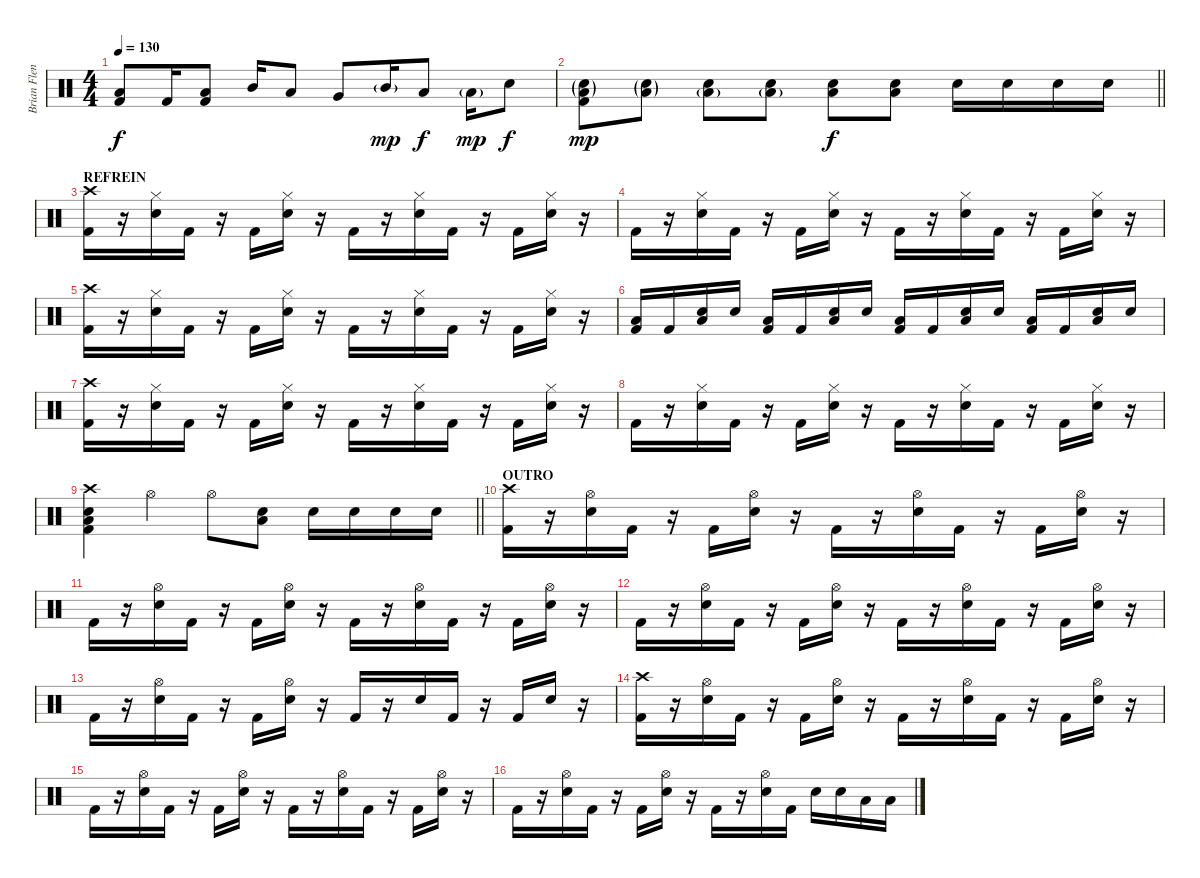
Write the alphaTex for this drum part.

\track ("Brian Flenniken" "Brian Flen") {instrument percussion}
\staff {score}
\articulation defaults
\ts (4 4)
\tempo 130
\clef neutral
\ks c
("Low Floor Tom (hit)" "Kick (hit) 2").8{dy f} "Kick (hit) 2".16 ("Low Floor Tom (hit)" "Kick (hit) 2").8 "Mid Tom (hit)".16 "Low Tom (hit)".8 "Very Low Tom (hit)".8 "Mid Tom (hit)"{g}.16{dy mp} "Low Floor Tom (hit)".8{dy f} "Low Tom (hit)"{g}.16{dy mp} "Snare (hit) 2".8{dy f} |
\barLineRight lightlight
("Low Floor Tom (hit)"{g} "Snare (hit) 2"{g} "Kick (hit) 2").8{dy mp} ("Low Floor Tom (hit)"{g} "Snare (hit) 2"{g}).8 ("Low Floor Tom (hit)"{g} "Snare (hit) 2").8 ("Low Floor Tom (hit)"{g} "Snare (hit) 2").8 ("Low Floor Tom (hit)" "Snare (hit) 2").8{dy f} ("Low Floor Tom (hit)" "Snare (hit) 2").8 "Snare (hit) 2".16 "Snare (hit) 2".16 "Snare (hit) 2".16 "Snare (hit) 2".16 |
\section ("" "REFREIN")
("Crash high (hit)" "Kick (hit) 2").16 r.16 ("Hi-Hat (closed)" "Snare (hit) 2").16 "Kick (hit) 2".16 r.16 "Kick (hit) 2".16 ("Hi-Hat (closed)" "Snare (hit) 2").16 r.16 "Kick (hit) 2".16 r.16 ("Hi-Hat (closed)" "Snare (hit) 2").16 "Kick (hit) 2".16 r.16 "Kick (hit) 2".16 ("Hi-Hat (closed)" "Snare (hit) 2").16 r.16 |
"Kick (hit) 2".16 r.16 ("Hi-Hat (closed)" "Snare (hit) 2").16 "Kick (hit) 2".16 r.16 "Kick (hit) 2".16 ("Hi-Hat (closed)" "Snare (hit) 2").16 r.16 "Kick (hit) 2".16 r.16 ("Hi-Hat (closed)" "Snare (hit) 2").16 "Kick (hit) 2".16 r.16 "Kick (hit) 2".16 ("Hi-Hat (closed)" "Snare (hit) 2").16 r.16 |
("Crash high (hit)" "Kick (hit) 2").16 r.16 ("Hi-Hat (closed)" "Snare (hit) 2").16 "Kick (hit) 2".16 r.16 "Kick (hit) 2".16 ("Hi-Hat (closed)" "Snare (hit) 2").16 r.16 "Kick (hit) 2".16 r.16 ("Hi-Hat (closed)" "Snare (hit) 2").16 "Kick (hit) 2".16 r.16 "Kick (hit) 2".16 ("Hi-Hat (closed)" "Snare (hit) 2").16 r.16 |
("Low Floor Tom (hit)" "Kick (hit) 2").16 "Kick (hit) 2".16 ("Low Floor Tom (hit)" "Snare (hit) 2").16 "Snare (hit) 2".16 ("Low Floor Tom (hit)" "Kick (hit) 2").16 "Kick (hit) 2".16 ("Low Floor Tom (hit)" "Snare (hit) 2").16 "Snare (hit) 2".16 ("Low Floor Tom (hit)" "Kick (hit) 2").16 "Kick (hit) 2".16 ("Low Floor Tom (hit)" "Snare (hit) 2").16 "Snare (hit) 2".16 ("Low Floor Tom (hit)" "Kick (hit) 2").16 "Kick (hit) 2".16 ("Low Floor Tom (hit)" "Snare (hit) 2").16 "Snare (hit) 2".16 |
("Crash high (hit)" "Kick (hit) 2").16 r.16 ("Hi-Hat (closed)" "Snare (hit) 2").16 "Kick (hit) 2".16 r.16 "Kick (hit) 2".16 ("Hi-Hat (closed)" "Snare (hit) 2").16 r.16 "Kick (hit) 2".16 r.16 ("Hi-Hat (closed)" "Snare (hit) 2").16 "Kick (hit) 2".16 r.16 "Kick (hit) 2".16 ("Hi-Hat (closed)" "Snare (hit) 2").16 r.16 |
"Kick (hit) 2".16 r.16 ("Hi-Hat (closed)" "Snare (hit) 2").16 "Kick (hit) 2".16 r.16 "Kick (hit) 2".16 ("Hi-Hat (closed)" "Snare (hit) 2").16 r.16 "Kick (hit) 2".16 r.16 ("Hi-Hat (closed)" "Snare (hit) 2").16 "Kick (hit) 2".16 r.16 "Kick (hit) 2".16 ("Hi-Hat (closed)" "Snare (hit) 2").16 r.16 |
\barLineRight lightlight
("Crash high (hit)" "Low Floor Tom (hit)" "Snare (hit) 2" "Kick (hit) 2").4 "Hi-Hat (open)".4 "Hi-Hat (open)".8 ("Low Floor Tom (hit)" "Snare (hit) 2").8 "Snare (hit) 2".16 "Snare (hit) 2".16 "Snare (hit) 2".16 "Snare (hit) 2".16 |
\section ("" "OUTRO")
("Crash high (hit)" "Kick (hit) 2").16 r.16 ("Hi-Hat (open)" "Snare (hit) 2").16 "Kick (hit) 2".16 r.16 "Kick (hit) 2".16 ("Hi-Hat (open)" "Snare (hit) 2").16 r.16 "Kick (hit) 2".16 r.16 ("Hi-Hat (open)" "Snare (hit) 2").16 "Kick (hit) 2".16 r.16 "Kick (hit) 2".16 ("Hi-Hat (open)" "Snare (hit) 2").16 r.16 |
"Kick (hit) 2".16 r.16 ("Hi-Hat (open)" "Snare (hit) 2").16 "Kick (hit) 2".16 r.16 "Kick (hit) 2".16 ("Hi-Hat (open)" "Snare (hit) 2").16 r.16 "Kick (hit) 2".16 r.16 ("Hi-Hat (open)" "Snare (hit) 2").16 "Kick (hit) 2".16 r.16 "Kick (hit) 2".16 ("Hi-Hat (open)" "Snare (hit) 2").16 r.16 |
"Kick (hit) 2".16 r.16 ("Hi-Hat (open)" "Snare (hit) 2").16 "Kick (hit) 2".16 r.16 "Kick (hit) 2".16 ("Hi-Hat (open)" "Snare (hit) 2").16 r.16 "Kick (hit) 2".16 r.16 ("Hi-Hat (open)" "Snare (hit) 2").16 "Kick (hit) 2".16 r.16 "Kick (hit) 2".16 ("Hi-Hat (open)" "Snare (hit) 2").16 r.16 |
"Kick (hit) 2".16 r.16 ("Hi-Hat (open)" "Snare (hit) 2").16 "Kick (hit) 2".16 r.16 "Kick (hit) 2".16 ("Hi-Hat (open)" "Snare (hit) 2").16 r.16 "Kick (hit) 2".16 r.16 "Snare (hit) 2".16 "Kick (hit) 2".16 r.16 "Kick (hit) 2".16 "Snare (hit) 2".16 r.16 |
("Crash high (hit)" "Kick (hit) 2").16 r.16 ("Hi-Hat (open)" "Snare (hit) 2").16 "Kick (hit) 2".16 r.16 "Kick (hit) 2".16 ("Hi-Hat (open)" "Snare (hit) 2").16 r.16 "Kick (hit) 2".16 r.16 ("Hi-Hat (open)" "Snare (hit) 2").16 "Kick (hit) 2".16 r.16 "Kick (hit) 2".16 ("Hi-Hat (open)" "Snare (hit) 2").16 r.16 |
"Kick (hit) 2".16 r.16 ("Hi-Hat (open)" "Snare (hit) 2").16 "Kick (hit) 2".16 r.16 "Kick (hit) 2".16 ("Hi-Hat (open)" "Snare (hit) 2").16 r.16 "Kick (hit) 2".16 r.16 ("Hi-Hat (open)" "Snare (hit) 2").16 "Kick (hit) 2".16 r.16 "Kick (hit) 2".16 ("Hi-Hat (open)" "Snare (hit) 2").16 r.16 |
"Kick (hit) 2".16 r.16 ("Hi-Hat (open)" "Snare (hit) 2").16 "Kick (hit) 2".16 r.16 "Kick (hit) 2".16 ("Hi-Hat (open)" "Snare (hit) 2").16 r.16 "Kick (hit) 2".16 r.16 ("Hi-Hat (open)" "Snare (hit) 2").16 "Kick (hit) 2".16 "Snare (hit) 2".16 "Snare (hit) 2".16 "Low Floor Tom (hit)".16 "Low Floor Tom (hit)".16
